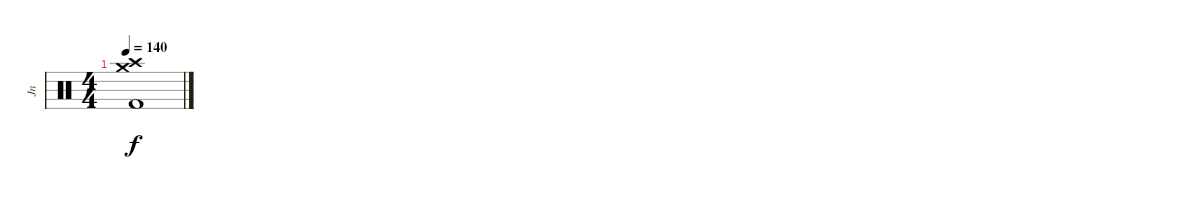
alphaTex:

\track ("Jn" "Jn") {instrument percussion}
\staff {score}
\articulation defaults
\ts (4 4)
\tempo 140
\clef neutral
\ks c
("Kick (hit) 2" "Crash medium (hit)" "Crash high (hit)").1{dy f}
